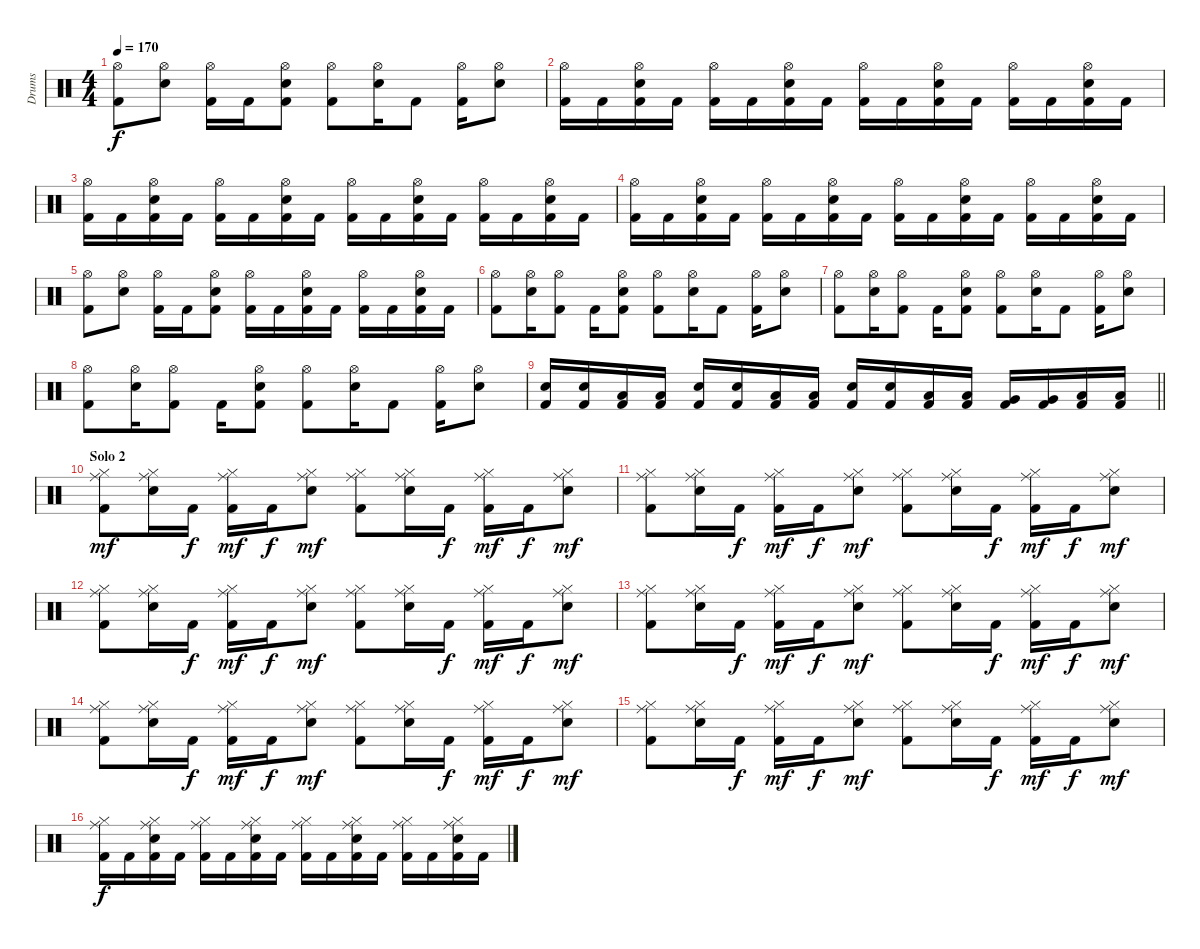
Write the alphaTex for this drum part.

\track ("Drums" "Drums") {instrument percussion}
\staff {score}
\articulation defaults
\ts (4 4)
\tempo 170
\clef neutral
\ks c
("Hi-Hat (open)" "Kick (hit) 2").8{dy f} ("Hi-Hat (open)" "Snare (hit) 2").8 ("Hi-Hat (open)" "Kick (hit) 2").16 "Kick (hit) 2".16 ("Hi-Hat (open)" "Snare (hit) 2" "Kick (hit) 2").8 ("Hi-Hat (open)" "Kick (hit) 2").8 ("Hi-Hat (open)" "Snare (hit) 2").16 "Kick (hit) 2".8 ("Hi-Hat (open)" "Kick (hit) 2").16 ("Hi-Hat (open)" "Snare (hit) 2").8 |
("Hi-Hat (open)" "Kick (hit) 2").16 "Kick (hit) 2".16 ("Hi-Hat (open)" "Snare (hit) 2" "Kick (hit) 2").16 "Kick (hit) 2".16 ("Hi-Hat (open)" "Kick (hit) 2").16 "Kick (hit) 2".16 ("Hi-Hat (open)" "Snare (hit) 2" "Kick (hit) 2").16 "Kick (hit) 2".16 ("Hi-Hat (open)" "Kick (hit) 2").16 "Kick (hit) 2".16 ("Hi-Hat (open)" "Snare (hit) 2" "Kick (hit) 2").16 "Kick (hit) 2".16 ("Hi-Hat (open)" "Kick (hit) 2").16 "Kick (hit) 2".16 ("Hi-Hat (open)" "Snare (hit) 2" "Kick (hit) 2").16 "Kick (hit) 2".16 |
("Hi-Hat (open)" "Kick (hit) 2").16 "Kick (hit) 2".16 ("Hi-Hat (open)" "Snare (hit) 2" "Kick (hit) 2").16 "Kick (hit) 2".16 ("Hi-Hat (open)" "Kick (hit) 2").16 "Kick (hit) 2".16 ("Hi-Hat (open)" "Snare (hit) 2" "Kick (hit) 2").16 "Kick (hit) 2".16 ("Hi-Hat (open)" "Kick (hit) 2").16 "Kick (hit) 2".16 ("Hi-Hat (open)" "Snare (hit) 2" "Kick (hit) 2").16 "Kick (hit) 2".16 ("Hi-Hat (open)" "Kick (hit) 2").16 "Kick (hit) 2".16 ("Hi-Hat (open)" "Snare (hit) 2" "Kick (hit) 2").16 "Kick (hit) 2".16 |
("Hi-Hat (open)" "Kick (hit) 2").16 "Kick (hit) 2".16 ("Hi-Hat (open)" "Snare (hit) 2" "Kick (hit) 2").16 "Kick (hit) 2".16 ("Hi-Hat (open)" "Kick (hit) 2").16 "Kick (hit) 2".16 ("Hi-Hat (open)" "Snare (hit) 2" "Kick (hit) 2").16 "Kick (hit) 2".16 ("Hi-Hat (open)" "Kick (hit) 2").16 "Kick (hit) 2".16 ("Hi-Hat (open)" "Snare (hit) 2" "Kick (hit) 2").16 "Kick (hit) 2".16 ("Hi-Hat (open)" "Kick (hit) 2").16 "Kick (hit) 2".16 ("Hi-Hat (open)" "Snare (hit) 2" "Kick (hit) 2").16 "Kick (hit) 2".16 |
("Hi-Hat (open)" "Kick (hit) 2").8 ("Hi-Hat (open)" "Snare (hit) 2").8 ("Hi-Hat (open)" "Kick (hit) 2").16 "Kick (hit) 2".16 ("Hi-Hat (open)" "Snare (hit) 2" "Kick (hit) 2").8 ("Hi-Hat (open)" "Kick (hit) 2").16 "Kick (hit) 2".16 ("Hi-Hat (open)" "Snare (hit) 2" "Kick (hit) 2").16 "Kick (hit) 2".16 ("Hi-Hat (open)" "Kick (hit) 2").16 "Kick (hit) 2".16 ("Hi-Hat (open)" "Snare (hit) 2" "Kick (hit) 2").16 "Kick (hit) 2".16 |
("Hi-Hat (open)" "Kick (hit) 2").8 ("Hi-Hat (open)" "Snare (hit) 2").16 ("Hi-Hat (open)" "Kick (hit) 2").8 "Kick (hit) 2".16 ("Hi-Hat (open)" "Snare (hit) 2" "Kick (hit) 2").8 ("Hi-Hat (open)" "Kick (hit) 2").8 ("Hi-Hat (open)" "Snare (hit) 2").16 "Kick (hit) 2".8 ("Hi-Hat (open)" "Kick (hit) 2").16 ("Hi-Hat (open)" "Snare (hit) 2").8 |
("Hi-Hat (open)" "Kick (hit) 2").8 ("Hi-Hat (open)" "Snare (hit) 2").16 ("Hi-Hat (open)" "Kick (hit) 2").8 "Kick (hit) 2".16 ("Hi-Hat (open)" "Snare (hit) 2" "Kick (hit) 2").8 ("Hi-Hat (open)" "Kick (hit) 2").8 ("Hi-Hat (open)" "Snare (hit) 2").16 "Kick (hit) 2".8 ("Hi-Hat (open)" "Kick (hit) 2").16 ("Hi-Hat (open)" "Snare (hit) 2").8 |
("Hi-Hat (open)" "Kick (hit) 2").8 ("Hi-Hat (open)" "Snare (hit) 2").16 ("Hi-Hat (open)" "Kick (hit) 2").8 "Kick (hit) 2".16 ("Hi-Hat (open)" "Snare (hit) 2" "Kick (hit) 2").8 ("Hi-Hat (open)" "Kick (hit) 2").8 ("Hi-Hat (open)" "Snare (hit) 2").16 "Kick (hit) 2".8 ("Hi-Hat (open)" "Kick (hit) 2").16 ("Hi-Hat (open)" "Snare (hit) 2").8 |
\barLineRight lightlight
("Snare (hit) 2" "Kick (hit) 2").16 ("Snare (hit) 2" "Kick (hit) 2").16 ("Low Floor Tom (hit)" "Kick (hit) 2").16 ("Low Floor Tom (hit)" "Kick (hit) 2").16 ("Snare (hit) 2" "Kick (hit) 2").16 ("Snare (hit) 2" "Kick (hit) 2").16 ("Low Floor Tom (hit)" "Kick (hit) 2").16 ("Low Floor Tom (hit)" "Kick (hit) 2").16 ("Snare (hit) 2" "Kick (hit) 2").16 ("Snare (hit) 2" "Kick (hit) 2").16 ("Low Tom (hit)" "Kick (hit) 2").16 ("Low Tom (hit)" "Kick (hit) 2").16 ("Very Low Tom (hit)" "Kick (hit) 2").16 ("Very Low Tom (hit)" "Kick (hit) 2").16 ("Low Floor Tom (hit)" "Kick (hit) 2").16 ("Low Floor Tom (hit)" "Kick (hit) 2").16 |
\section ("" "Solo 2")
("Hi-Hat (closed)" "Ride (middle)" "Kick (hit) 2").8{dy mf} ("Hi-Hat (closed)" "Ride (middle)" "Snare (hit) 2").16 "Kick (hit) 2".16{dy f} ("Hi-Hat (closed)" "Ride (middle)" "Kick (hit) 2").16{dy mf} "Kick (hit) 2".16{dy f} ("Hi-Hat (closed)" "Ride (middle)" "Snare (hit) 2").8{dy mf} ("Hi-Hat (closed)" "Ride (middle)" "Kick (hit) 2").8 ("Hi-Hat (closed)" "Ride (middle)" "Snare (hit) 2").16 "Kick (hit) 2".16{dy f} ("Hi-Hat (closed)" "Ride (middle)" "Kick (hit) 2").16{dy mf} "Kick (hit) 2".16{dy f} ("Hi-Hat (closed)" "Ride (middle)" "Snare (hit) 2").8{dy mf} |
("Hi-Hat (closed)" "Ride (middle)" "Kick (hit) 2").8 ("Hi-Hat (closed)" "Ride (middle)" "Snare (hit) 2").16 "Kick (hit) 2".16{dy f} ("Hi-Hat (closed)" "Ride (middle)" "Kick (hit) 2").16{dy mf} "Kick (hit) 2".16{dy f} ("Hi-Hat (closed)" "Ride (middle)" "Snare (hit) 2").8{dy mf} ("Hi-Hat (closed)" "Ride (middle)" "Kick (hit) 2").8 ("Hi-Hat (closed)" "Ride (middle)" "Snare (hit) 2").16 "Kick (hit) 2".16{dy f} ("Hi-Hat (closed)" "Ride (middle)" "Kick (hit) 2").16{dy mf} "Kick (hit) 2".16{dy f} ("Hi-Hat (closed)" "Ride (middle)" "Snare (hit) 2").8{dy mf} |
("Hi-Hat (closed)" "Ride (middle)" "Kick (hit) 2").8 ("Hi-Hat (closed)" "Ride (middle)" "Snare (hit) 2").16 "Kick (hit) 2".16{dy f} ("Hi-Hat (closed)" "Ride (middle)" "Kick (hit) 2").16{dy mf} "Kick (hit) 2".16{dy f} ("Hi-Hat (closed)" "Ride (middle)" "Snare (hit) 2").8{dy mf} ("Hi-Hat (closed)" "Ride (middle)" "Kick (hit) 2").8 ("Hi-Hat (closed)" "Ride (middle)" "Snare (hit) 2").16 "Kick (hit) 2".16{dy f} ("Hi-Hat (closed)" "Ride (middle)" "Kick (hit) 2").16{dy mf} "Kick (hit) 2".16{dy f} ("Hi-Hat (closed)" "Ride (middle)" "Snare (hit) 2").8{dy mf} |
("Hi-Hat (closed)" "Ride (middle)" "Kick (hit) 2").8 ("Hi-Hat (closed)" "Ride (middle)" "Snare (hit) 2").16 "Kick (hit) 2".16{dy f} ("Hi-Hat (closed)" "Ride (middle)" "Kick (hit) 2").16{dy mf} "Kick (hit) 2".16{dy f} ("Hi-Hat (closed)" "Ride (middle)" "Snare (hit) 2").8{dy mf} ("Hi-Hat (closed)" "Ride (middle)" "Kick (hit) 2").8 ("Hi-Hat (closed)" "Ride (middle)" "Snare (hit) 2").16 "Kick (hit) 2".16{dy f} ("Hi-Hat (closed)" "Ride (middle)" "Kick (hit) 2").16{dy mf} "Kick (hit) 2".16{dy f} ("Hi-Hat (closed)" "Ride (middle)" "Snare (hit) 2").8{dy mf} |
("Hi-Hat (closed)" "Ride (middle)" "Kick (hit) 2").8 ("Hi-Hat (closed)" "Ride (middle)" "Snare (hit) 2").16 "Kick (hit) 2".16{dy f} ("Hi-Hat (closed)" "Ride (middle)" "Kick (hit) 2").16{dy mf} "Kick (hit) 2".16{dy f} ("Hi-Hat (closed)" "Ride (middle)" "Snare (hit) 2").8{dy mf} ("Hi-Hat (closed)" "Ride (middle)" "Kick (hit) 2").8 ("Hi-Hat (closed)" "Ride (middle)" "Snare (hit) 2").16 "Kick (hit) 2".16{dy f} ("Hi-Hat (closed)" "Ride (middle)" "Kick (hit) 2").16{dy mf} "Kick (hit) 2".16{dy f} ("Hi-Hat (closed)" "Ride (middle)" "Snare (hit) 2").8{dy mf} |
("Hi-Hat (closed)" "Ride (middle)" "Kick (hit) 2").8 ("Hi-Hat (closed)" "Ride (middle)" "Snare (hit) 2").16 "Kick (hit) 2".16{dy f} ("Hi-Hat (closed)" "Ride (middle)" "Kick (hit) 2").16{dy mf} "Kick (hit) 2".16{dy f} ("Hi-Hat (closed)" "Ride (middle)" "Snare (hit) 2").8{dy mf} ("Hi-Hat (closed)" "Ride (middle)" "Kick (hit) 2").8 ("Hi-Hat (closed)" "Ride (middle)" "Snare (hit) 2").16 "Kick (hit) 2".16{dy f} ("Hi-Hat (closed)" "Ride (middle)" "Kick (hit) 2").16{dy mf} "Kick (hit) 2".16{dy f} ("Hi-Hat (closed)" "Ride (middle)" "Snare (hit) 2").8{dy mf} |
("Hi-Hat (closed)" "Ride (middle)" "Kick (hit) 2").16{dy f} "Kick (hit) 2".16 ("Hi-Hat (closed)" "Ride (middle)" "Snare (hit) 2" "Kick (hit) 2").16 "Kick (hit) 2".16 ("Hi-Hat (closed)" "Ride (middle)" "Kick (hit) 2").16 "Kick (hit) 2".16 ("Hi-Hat (closed)" "Ride (middle)" "Snare (hit) 2" "Kick (hit) 2").16 "Kick (hit) 2".16 ("Hi-Hat (closed)" "Ride (middle)" "Kick (hit) 2").16 "Kick (hit) 2".16 ("Hi-Hat (closed)" "Ride (middle)" "Snare (hit) 2" "Kick (hit) 2").16 "Kick (hit) 2".16 ("Hi-Hat (closed)" "Ride (middle)" "Kick (hit) 2").16 "Kick (hit) 2".16 ("Hi-Hat (closed)" "Ride (middle)" "Snare (hit) 2" "Kick (hit) 2").16 "Kick (hit) 2".16
